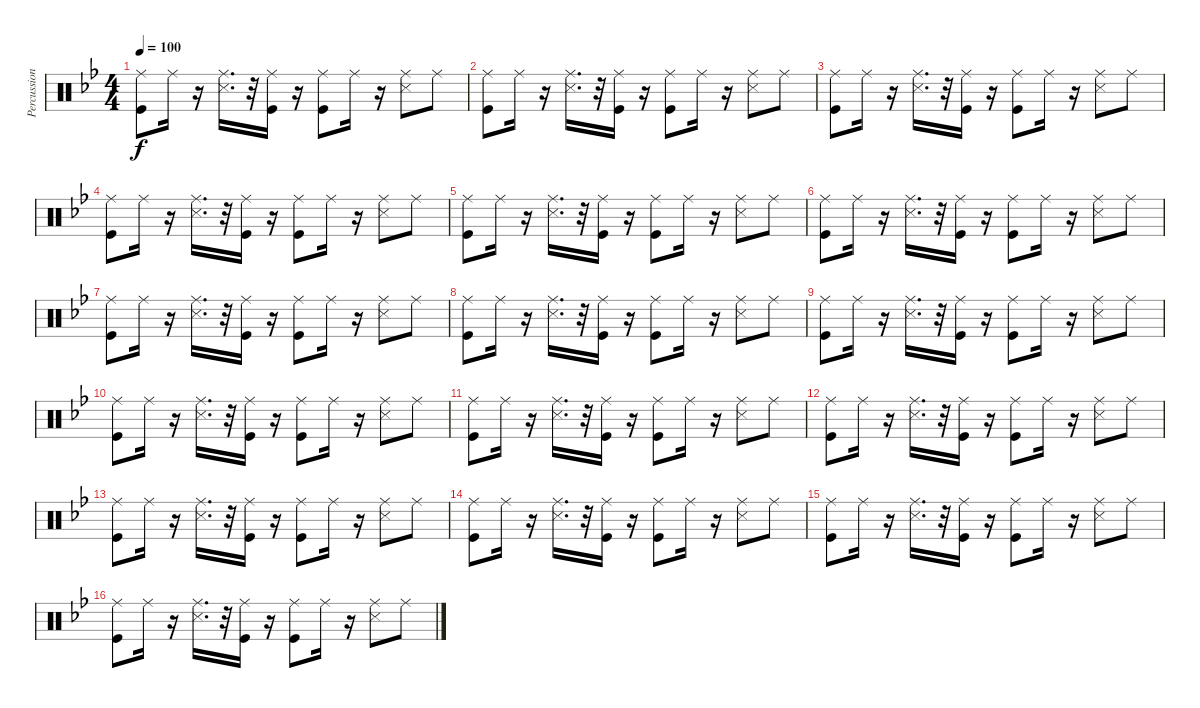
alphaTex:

\track ("Percussion" "Percussion") {instrument percussion}
\staff {score}
\articulation defaults
\ts (4 4)
\tempo 100
\clef neutral
\ks bb
("Kick (hit)" "Ride (middle)").8{dy f} "Ride (middle)".16 r.16 ("Snare (side stick) 3" "Ride (middle)").16{d} r.32 ("Ride (middle)" "Kick (hit)").16 r.16 ("Ride (middle)" "Kick (hit)").8 "Ride (middle)".16 r.16 ("Snare (side stick) 3" "Ride (middle)").8 "Ride (middle)".8 |
("Kick (hit)" "Ride (middle)").8 "Ride (middle)".16 r.16 ("Snare (side stick) 3" "Ride (middle)").16{d} r.32 ("Ride (middle)" "Kick (hit)").16 r.16 ("Ride (middle)" "Kick (hit)").8 "Ride (middle)".16 r.16 ("Snare (side stick) 3" "Ride (middle)").8 "Ride (middle)".8 |
("Kick (hit)" "Ride (middle)").8 "Ride (middle)".16 r.16 ("Snare (side stick) 3" "Ride (middle)").16{d} r.32 ("Ride (middle)" "Kick (hit)").16 r.16 ("Ride (middle)" "Kick (hit)").8 "Ride (middle)".16 r.16 ("Snare (side stick) 3" "Ride (middle)").8 "Ride (middle)".8 |
("Kick (hit)" "Ride (middle)").8 "Ride (middle)".16 r.16 ("Snare (side stick) 3" "Ride (middle)").16{d} r.32 ("Ride (middle)" "Kick (hit)").16 r.16 ("Ride (middle)" "Kick (hit)").8 "Ride (middle)".16 r.16 ("Snare (side stick) 3" "Ride (middle)").8 "Ride (middle)".8 |
("Kick (hit)" "Ride (middle)").8 "Ride (middle)".16 r.16 ("Snare (side stick) 3" "Ride (middle)").16{d} r.32 ("Ride (middle)" "Kick (hit)").16 r.16 ("Ride (middle)" "Kick (hit)").8 "Ride (middle)".16 r.16 ("Snare (side stick) 3" "Ride (middle)").8 "Ride (middle)".8 |
("Kick (hit)" "Ride (middle)").8 "Ride (middle)".16 r.16 ("Snare (side stick) 3" "Ride (middle)").16{d} r.32 ("Ride (middle)" "Kick (hit)").16 r.16 ("Ride (middle)" "Kick (hit)").8 "Ride (middle)".16 r.16 ("Snare (side stick) 3" "Ride (middle)").8 "Ride (middle)".8 |
("Kick (hit)" "Ride (middle)").8 "Ride (middle)".16 r.16 ("Snare (side stick) 3" "Ride (middle)").16{d} r.32 ("Ride (middle)" "Kick (hit)").16 r.16 ("Ride (middle)" "Kick (hit)").8 "Ride (middle)".16 r.16 ("Snare (side stick) 3" "Ride (middle)").8 "Ride (middle)".8 |
("Kick (hit)" "Ride (middle)").8 "Ride (middle)".16 r.16 ("Snare (side stick) 3" "Ride (middle)").16{d} r.32 ("Ride (middle)" "Kick (hit)").16 r.16 ("Ride (middle)" "Kick (hit)").8 "Ride (middle)".16 r.16 ("Snare (side stick) 3" "Ride (middle)").8 "Ride (middle)".8 |
("Kick (hit)" "Ride (middle)").8 "Ride (middle)".16 r.16 ("Snare (side stick) 3" "Ride (middle)").16{d} r.32 ("Ride (middle)" "Kick (hit)").16 r.16 ("Ride (middle)" "Kick (hit)").8 "Ride (middle)".16 r.16 ("Snare (side stick) 3" "Ride (middle)").8 "Ride (middle)".8 |
("Kick (hit)" "Ride (middle)").8 "Ride (middle)".16 r.16 ("Snare (side stick) 3" "Ride (middle)").16{d} r.32 ("Ride (middle)" "Kick (hit)").16 r.16 ("Ride (middle)" "Kick (hit)").8 "Ride (middle)".16 r.16 ("Snare (side stick) 3" "Ride (middle)").8 "Ride (middle)".8 |
("Kick (hit)" "Ride (middle)").8 "Ride (middle)".16 r.16 ("Snare (side stick) 3" "Ride (middle)").16{d} r.32 ("Ride (middle)" "Kick (hit)").16 r.16 ("Ride (middle)" "Kick (hit)").8 "Ride (middle)".16 r.16 ("Snare (side stick) 3" "Ride (middle)").8 "Ride (middle)".8 |
("Kick (hit)" "Ride (middle)").8 "Ride (middle)".16 r.16 ("Snare (side stick) 3" "Ride (middle)").16{d} r.32 ("Ride (middle)" "Kick (hit)").16 r.16 ("Ride (middle)" "Kick (hit)").8 "Ride (middle)".16 r.16 ("Snare (side stick) 3" "Ride (middle)").8 "Ride (middle)".8 |
("Kick (hit)" "Ride (middle)").8 "Ride (middle)".16 r.16 ("Snare (side stick) 3" "Ride (middle)").16{d} r.32 ("Ride (middle)" "Kick (hit)").16 r.16 ("Ride (middle)" "Kick (hit)").8 "Ride (middle)".16 r.16 ("Snare (side stick) 3" "Ride (middle)").8 "Ride (middle)".8 |
("Kick (hit)" "Ride (middle)").8 "Ride (middle)".16 r.16 ("Snare (side stick) 3" "Ride (middle)").16{d} r.32 ("Ride (middle)" "Kick (hit)").16 r.16 ("Ride (middle)" "Kick (hit)").8 "Ride (middle)".16 r.16 ("Snare (side stick) 3" "Ride (middle)").8 "Ride (middle)".8 |
("Kick (hit)" "Ride (middle)").8 "Ride (middle)".16 r.16 ("Snare (side stick) 3" "Ride (middle)").16{d} r.32 ("Ride (middle)" "Kick (hit)").16 r.16 ("Ride (middle)" "Kick (hit)").8 "Ride (middle)".16 r.16 ("Snare (side stick) 3" "Ride (middle)").8 "Ride (middle)".8 |
("Kick (hit)" "Ride (middle)").8 "Ride (middle)".16 r.16 ("Snare (side stick) 3" "Ride (middle)").16{d} r.32 ("Ride (middle)" "Kick (hit)").16 r.16 ("Ride (middle)" "Kick (hit)").8 "Ride (middle)".16 r.16 ("Snare (side stick) 3" "Ride (middle)").8 "Ride (middle)".8
